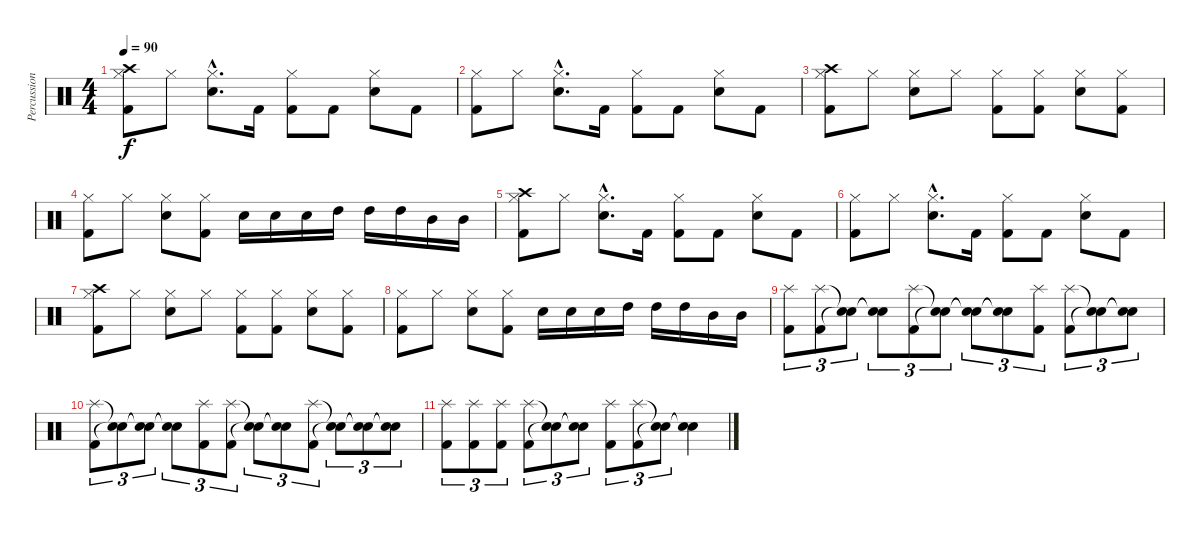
\track ("Percussions" "Percussion") {instrument percussion}
\staff {score}
\articulation defaults
\ts (4 4)
\tempo 90
\clef neutral
\ks c
("Crash high (hit)" "Hi-Hat (closed)" "Kick (hit) 2").8{dy f} "Hi-Hat (closed)".8 ("Hi-Hat (closed)"{hac} "Snare (hit) 2"{hac}).8{d} "Kick (hit) 2".16 ("Hi-Hat (closed)" "Kick (hit) 2").8 "Kick (hit) 2".8 ("Hi-Hat (closed)" "Snare (hit) 2").8 "Kick (hit) 2".8 |
("Hi-Hat (closed)" "Kick (hit) 2").8 "Hi-Hat (closed)".8 ("Hi-Hat (closed)"{hac} "Snare (hit) 2"{hac}).8{d} "Kick (hit) 2".16 ("Hi-Hat (closed)" "Kick (hit) 2").8 "Kick (hit) 2".8 ("Hi-Hat (closed)" "Snare (hit) 2").8 "Kick (hit) 2".8 |
("Crash high (hit)" "Hi-Hat (closed)" "Kick (hit) 2").8 "Hi-Hat (closed)".8 ("Hi-Hat (closed)" "Snare (hit) 2").8 "Hi-Hat (closed)".8 ("Hi-Hat (closed)" "Kick (hit) 2").8 ("Hi-Hat (closed)" "Kick (hit) 2").8 ("Hi-Hat (closed)" "Snare (hit) 2").8 ("Hi-Hat (closed)" "Kick (hit) 2").8 |
("Hi-Hat (closed)" "Kick (hit) 2").8 "Hi-Hat (closed)".8 ("Hi-Hat (closed)" "Snare (hit) 2").8 ("Hi-Hat (closed)" "Kick (hit) 2").8 "Snare (hit) 2".16 "Snare (hit) 2".16 "Snare (hit) 2".16 "High Tom (hit)".16 "High Tom (hit)".16 "High Tom (hit)".16 "Mid Tom (hit)".16 "Mid Tom (hit)".16 |
("Crash high (hit)" "Hi-Hat (closed)" "Kick (hit) 2").8 "Hi-Hat (closed)".8 ("Hi-Hat (closed)"{hac} "Snare (hit) 2"{hac}).8{d} "Kick (hit) 2".16 ("Hi-Hat (closed)" "Kick (hit) 2").8 "Kick (hit) 2".8 ("Hi-Hat (closed)" "Snare (hit) 2").8 "Kick (hit) 2".8 |
("Hi-Hat (closed)" "Kick (hit) 2").8 "Hi-Hat (closed)".8 ("Hi-Hat (closed)"{hac} "Snare (hit) 2"{hac}).8{d} "Kick (hit) 2".16 ("Hi-Hat (closed)" "Kick (hit) 2").8 "Kick (hit) 2".8 ("Hi-Hat (closed)" "Snare (hit) 2").8 "Kick (hit) 2".8 |
("Crash high (hit)" "Hi-Hat (closed)" "Kick (hit) 2").8 "Hi-Hat (closed)".8 ("Hi-Hat (closed)" "Snare (hit) 2").8 "Hi-Hat (closed)".8 ("Hi-Hat (closed)" "Kick (hit) 2").8 ("Hi-Hat (closed)" "Kick (hit) 2").8 ("Hi-Hat (closed)" "Snare (hit) 2").8 ("Hi-Hat (closed)" "Kick (hit) 2").8 |
("Hi-Hat (closed)" "Kick (hit) 2").8 "Hi-Hat (closed)".8 ("Hi-Hat (closed)" "Snare (hit) 2").8 ("Hi-Hat (closed)" "Kick (hit) 2").8 "Snare (hit) 2".16 "Snare (hit) 2".16 "Snare (hit) 2".16 "High Tom (hit)".16 "High Tom (hit)".16 "High Tom (hit)".16 "Mid Tom (hit)".16 "Mid Tom (hit)".16 |
("Splash (hit)" "Kick (hit) 2").8{tu (3 2)} ("Splash (hit)" "Kick (hit) 2").8{tu (3 2)} ("Snare (hit)"{t} "Snare (hit)"{t}).8{tu (3 2)} ("Snare (hit)"{t} "Snare (hit)"{t}).8{tu (3 2)} ("Splash (hit)" "Kick (hit) 2").8{tu (3 2)} ("Snare (hit)"{t} "Snare (hit)"{t}).8{tu (3 2)} ("Snare (hit)"{t} "Snare (hit)"{t}).8{tu (3 2)} ("Snare (hit)"{t} "Snare (hit)"{t}).8{tu (3 2)} ("Splash (hit)" "Kick (hit) 2").8{tu (3 2)} ("Splash (hit)" "Kick (hit) 2").8{tu (3 2)} ("Snare (hit)"{t} "Snare (hit)"{t}).8{tu (3 2)} ("Snare (hit)"{t} "Snare (hit)"{t}).8{tu (3 2)} |
("Splash (hit)" "Kick (hit) 2").8{tu (3 2)} ("Snare (hit)"{t} "Snare (hit)"{t}).8{tu (3 2)} ("Snare (hit)"{t} "Snare (hit)"{t}).8{tu (3 2)} ("Snare (hit)"{t} "Snare (hit)"{t}).8{tu (3 2)} ("Splash (hit)" "Kick (hit) 2").8{tu (3 2)} ("Splash (hit)" "Kick (hit) 2").8{tu (3 2)} ("Snare (hit)"{t} "Snare (hit)"{t}).8{tu (3 2)} ("Snare (hit)"{t} "Snare (hit)"{t}).8{tu (3 2)} ("Splash (hit)" "Kick (hit) 2").8{tu (3 2)} ("Snare (hit)"{t} "Snare (hit)"{t}).8{tu (3 2)} ("Snare (hit)"{t} "Snare (hit)"{t}).8{tu (3 2)} ("Snare (hit)"{t} "Snare (hit)"{t}).8{tu (3 2)} |
("Splash (hit)" "Kick (hit) 2").8{tu (3 2)} ("Splash (hit)" "Kick (hit) 2").8{tu (3 2)} ("Splash (hit)" "Kick (hit) 2").8{tu (3 2)} ("Splash (hit)" "Kick (hit) 2").8{tu (3 2)} ("Snare (hit)"{t} "Snare (hit)"{t}).8{tu (3 2)} ("Snare (hit)"{t} "Snare (hit)"{t}).8{tu (3 2)} ("Splash (hit)" "Kick (hit) 2").8{tu (3 2)} ("Splash (hit)" "Kick (hit) 2").8{tu (3 2)} ("Snare (hit)"{t} "Snare (hit)"{t}).8{tu (3 2)} ("Snare (hit)"{t} "Snare (hit)"{t}).4
